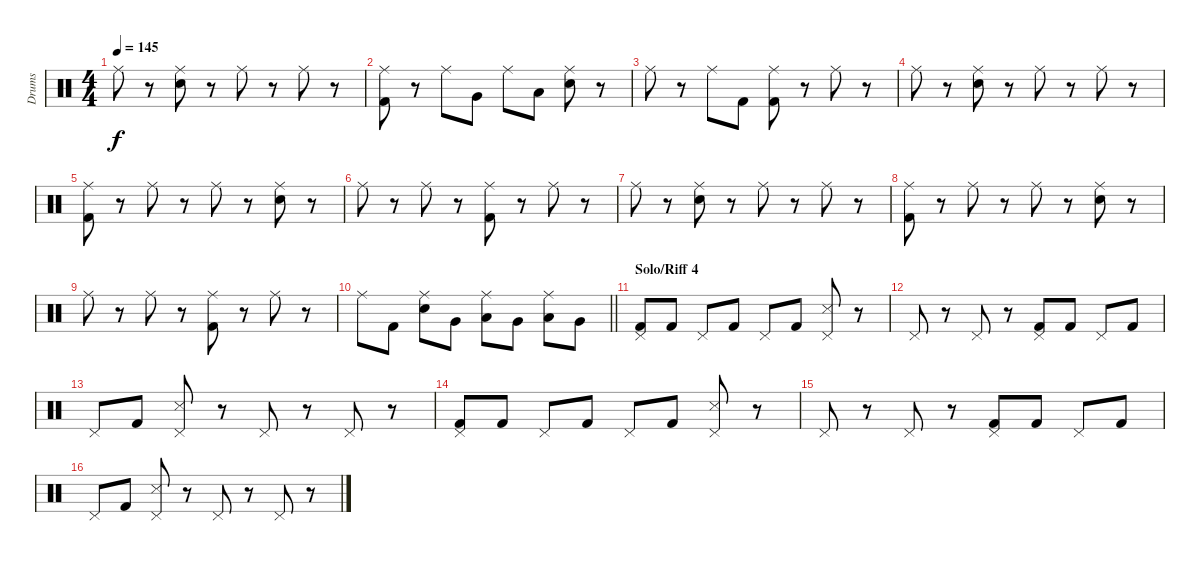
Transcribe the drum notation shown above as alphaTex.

\track ("Drums" "Drums") {instrument percussion}
\staff {score}
\articulation defaults
\ts (4 4)
\tempo 145
\clef neutral
\ks c "Ride (middle)".8{dy f}
r.8 ("Ride (middle)" "Electric Snare (hit)").8 r.8 "Ride (middle)".8 r.8 "Ride (middle)".8 r.8 |
("Ride (middle)" "Kick (hit) 2").8 r.8 "Ride (middle)".8 "Very Low Tom (hit)".8 "Ride (middle)".8 "Low Tom (hit)".8 ("Ride (middle)" "Electric Snare (hit)").8 r.8 |
"Ride (middle)".8 r.8 "Ride (middle)".8 "Kick (hit) 2".8 ("Ride (middle)" "Kick (hit) 2").8 r.8 "Ride (middle)".8 r.8 |
"Ride (middle)".8 r.8 ("Ride (middle)" "Electric Snare (hit)").8 r.8 "Ride (middle)".8 r.8 "Ride (middle)".8 r.8 |
("Ride (middle)" "Kick (hit) 2").8 r.8 "Ride (middle)".8 r.8 "Ride (middle)".8 r.8 ("Ride (middle)" "Electric Snare (hit)").8 r.8 |
"Ride (middle)".8 r.8 "Ride (middle)".8 r.8 ("Ride (middle)" "Kick (hit) 2").8 r.8 "Ride (middle)".8 r.8 |
"Ride (middle)".8 r.8 ("Ride (middle)" "Electric Snare (hit)").8 r.8 "Ride (middle)".8 r.8 "Ride (middle)".8 r.8 |
("Ride (middle)" "Kick (hit) 2").8 r.8 "Ride (middle)".8 r.8 "Ride (middle)".8 r.8 ("Ride (middle)" "Electric Snare (hit)").8 r.8 |
"Ride (middle)".8 r.8 "Ride (middle)".8 r.8 ("Ride (middle)" "Kick (hit) 2").8 r.8 "Ride (middle)".8 r.8 |
\barLineRight lightlight "Ride (middle)".8 "Kick (hit) 2".8
("Ride (middle)" "Electric Snare (hit)").8 "Very Low Tom (hit)".8 ("Ride (middle)" "Low Tom (hit)").8 "Very Low Tom (hit)".8 ("Ride (middle)" "Low Floor Tom (hit)").8 "Very Low Tom (hit)".8 |
\section ("" "Solo/Riff 4")
("Pedal Hi-Hat (hit)" "Kick (hit) 2").8 "Kick (hit) 2".8 "Pedal Hi-Hat (hit)".8 "Kick (hit) 2".8 "Pedal Hi-Hat (hit)".8 "Kick (hit) 2".8 ("Pedal Hi-Hat (hit)" "Snare (side stick) 3").8 r.8 |
"Pedal Hi-Hat (hit)".8 r.8 "Pedal Hi-Hat (hit)".8 r.8 ("Pedal Hi-Hat (hit)" "Kick (hit) 2").8 "Kick (hit) 2".8 "Pedal Hi-Hat (hit)".8 "Kick (hit) 2".8 |
"Pedal Hi-Hat (hit)".8 "Kick (hit) 2".8 ("Pedal Hi-Hat (hit)" "Snare (side stick) 3").8 r.8 "Pedal Hi-Hat (hit)".8 r.8 "Pedal Hi-Hat (hit)".8 r.8 |
("Pedal Hi-Hat (hit)" "Kick (hit) 2").8 "Kick (hit) 2".8 "Pedal Hi-Hat (hit)".8 "Kick (hit) 2".8 "Pedal Hi-Hat (hit)".8 "Kick (hit) 2".8 ("Pedal Hi-Hat (hit)" "Snare (side stick) 3").8 r.8 |
"Pedal Hi-Hat (hit)".8 r.8 "Pedal Hi-Hat (hit)".8 r.8 ("Pedal Hi-Hat (hit)" "Kick (hit) 2").8 "Kick (hit) 2".8 "Pedal Hi-Hat (hit)".8 "Kick (hit) 2".8 |
"Pedal Hi-Hat (hit)".8 "Kick (hit) 2".8 ("Pedal Hi-Hat (hit)" "Snare (side stick) 3").8 r.8 "Pedal Hi-Hat (hit)".8 r.8 "Pedal Hi-Hat (hit)".8 r.8
